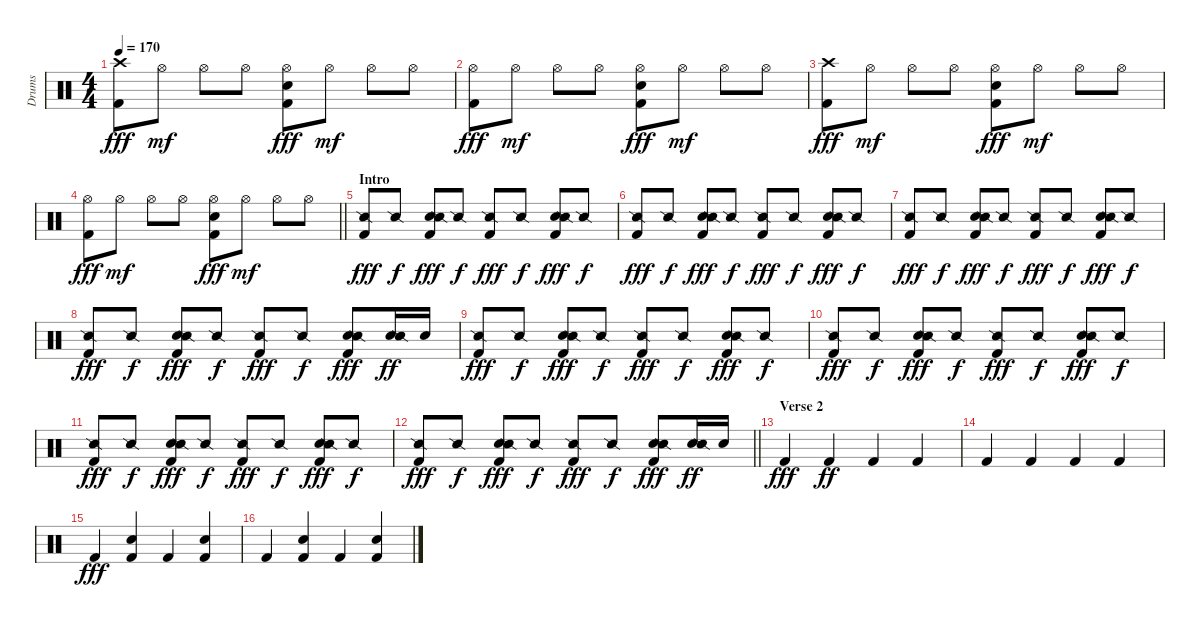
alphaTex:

\track ("Drums" "Drums") {instrument percussion}
\staff {score}
\articulation defaults
\ts (4 4)
\tempo 170
\clef neutral
\ks c
("Crash high (hit)" "Kick (hit) 2").8{dy fff} "Hi-Hat (open)".8{dy mf} "Hi-Hat (open)".8 "Hi-Hat (open)".8 ("Hi-Hat (open)" "Snare (hit) 2" "Kick (hit) 2").8{dy fff} "Hi-Hat (open)".8{dy mf} "Hi-Hat (open)".8 "Hi-Hat (open)".8 |
("Hi-Hat (open)" "Kick (hit) 2").8{dy fff} "Hi-Hat (open)".8{dy mf} "Hi-Hat (open)".8 "Hi-Hat (open)".8 ("Hi-Hat (open)" "Snare (hit) 2" "Kick (hit) 2").8{dy fff} "Hi-Hat (open)".8{dy mf} "Hi-Hat (open)".8 "Hi-Hat (open)".8 |
("Crash high (hit)" "Kick (hit) 2").8{dy fff} "Hi-Hat (open)".8{dy mf} "Hi-Hat (open)".8 "Hi-Hat (open)".8 ("Hi-Hat (open)" "Snare (hit) 2" "Kick (hit) 2").8{dy fff} "Hi-Hat (open)".8{dy mf} "Hi-Hat (open)".8 "Hi-Hat (open)".8 |
\barLineRight lightlight
("Hi-Hat (open)" "Kick (hit) 2").8{dy fff} "Hi-Hat (open)".8{dy mf} "Hi-Hat (open)".8 "Hi-Hat (open)".8 ("Hi-Hat (open)" "Snare (hit) 2" "Kick (hit) 2").8{dy fff} "Hi-Hat (open)".8{dy mf} "Hi-Hat (open)".8 "Hi-Hat (open)".8 |
\section ("" "Intro")
("Kick (hit) 2" "Snare (side stick) 2").8{dy fff} "Snare (side stick) 2".8{dy f} ("Snare (hit) 2" "Kick (hit) 2" "Snare (side stick) 2").8{dy fff} "Snare (side stick) 2".8{dy f} ("Kick (hit) 2" "Snare (side stick) 2").8{dy fff} "Snare (side stick) 2".8{dy f} ("Snare (hit) 2" "Kick (hit) 2" "Snare (side stick) 2").8{dy fff} "Snare (side stick) 2".8{dy f} |
("Kick (hit) 2" "Snare (side stick) 2").8{dy fff} "Snare (side stick) 2".8{dy f} ("Snare (hit) 2" "Kick (hit) 2" "Snare (side stick) 2").8{dy fff} "Snare (side stick) 2".8{dy f} ("Kick (hit) 2" "Snare (side stick) 2").8{dy fff} "Snare (side stick) 2".8{dy f} ("Snare (hit) 2" "Kick (hit) 2" "Snare (side stick) 2").8{dy fff} "Snare (side stick) 2".8{dy f} |
("Kick (hit) 2" "Snare (side stick) 2").8{dy fff} "Snare (side stick) 2".8{dy f} ("Snare (hit) 2" "Kick (hit) 2" "Snare (side stick) 2").8{dy fff} "Snare (side stick) 2".8{dy f} ("Kick (hit) 2" "Snare (side stick) 2").8{dy fff} "Snare (side stick) 2".8{dy f} ("Snare (hit) 2" "Kick (hit) 2" "Snare (side stick) 2").8{dy fff} "Snare (side stick) 2".8{dy f} |
("Kick (hit) 2" "Snare (side stick) 2").8{dy fff} "Snare (side stick) 2".8{dy f} ("Snare (hit) 2" "Kick (hit) 2" "Snare (side stick) 2").8{dy fff} "Snare (side stick) 2".8{dy f} ("Kick (hit) 2" "Snare (side stick) 2").8{dy fff} "Snare (side stick) 2".8{dy f} ("Snare (hit) 2" "Kick (hit) 2" "Snare (side stick) 2").8{dy fff} ("Snare (hit) 2" "Snare (side stick) 2").16{dy ff} "Snare (hit) 2".16 |
("Kick (hit) 2" "Snare (side stick) 2").8{dy fff} "Snare (side stick) 2".8{dy f} ("Snare (hit) 2" "Kick (hit) 2" "Snare (side stick) 2").8{dy fff} "Snare (side stick) 2".8{dy f} ("Kick (hit) 2" "Snare (side stick) 2").8{dy fff} "Snare (side stick) 2".8{dy f} ("Snare (hit) 2" "Kick (hit) 2" "Snare (side stick) 2").8{dy fff} "Snare (side stick) 2".8{dy f} |
("Kick (hit) 2" "Snare (side stick) 2").8{dy fff} "Snare (side stick) 2".8{dy f} ("Snare (hit) 2" "Kick (hit) 2" "Snare (side stick) 2").8{dy fff} "Snare (side stick) 2".8{dy f} ("Kick (hit) 2" "Snare (side stick) 2").8{dy fff} "Snare (side stick) 2".8{dy f} ("Snare (hit) 2" "Kick (hit) 2" "Snare (side stick) 2").8{dy fff} "Snare (side stick) 2".8{dy f} |
("Kick (hit) 2" "Snare (side stick) 2").8{dy fff} "Snare (side stick) 2".8{dy f} ("Snare (hit) 2" "Kick (hit) 2" "Snare (side stick) 2").8{dy fff} "Snare (side stick) 2".8{dy f} ("Kick (hit) 2" "Snare (side stick) 2").8{dy fff} "Snare (side stick) 2".8{dy f} ("Snare (hit) 2" "Kick (hit) 2" "Snare (side stick) 2").8{dy fff} "Snare (side stick) 2".8{dy f} |
\barLineRight lightlight
("Kick (hit) 2" "Snare (side stick) 2").8{dy fff} "Snare (side stick) 2".8{dy f} ("Snare (hit) 2" "Kick (hit) 2" "Snare (side stick) 2").8{dy fff} "Snare (side stick) 2".8{dy f} ("Kick (hit) 2" "Snare (side stick) 2").8{dy fff} "Snare (side stick) 2".8{dy f} ("Snare (hit) 2" "Kick (hit) 2" "Snare (side stick) 2").8{dy fff} ("Snare (hit) 2" "Snare (side stick) 2").16{dy ff} "Snare (hit) 2".16 |
\section ("" "Verse 2")
"Kick (hit) 2".4{dy fff} "Kick (hit) 2".4{dy ff} "Kick (hit) 2".4 "Kick (hit) 2".4 |
"Kick (hit) 2".4 "Kick (hit) 2".4 "Kick (hit) 2".4 "Kick (hit) 2".4 |
"Kick (hit) 2".4{dy fff} ("Snare (hit) 2" "Kick (hit) 2").4 "Kick (hit) 2".4 ("Snare (hit) 2" "Kick (hit) 2").4 |
"Kick (hit) 2".4 ("Snare (hit) 2" "Kick (hit) 2").4 "Kick (hit) 2".4 ("Snare (hit) 2" "Kick (hit) 2").4
